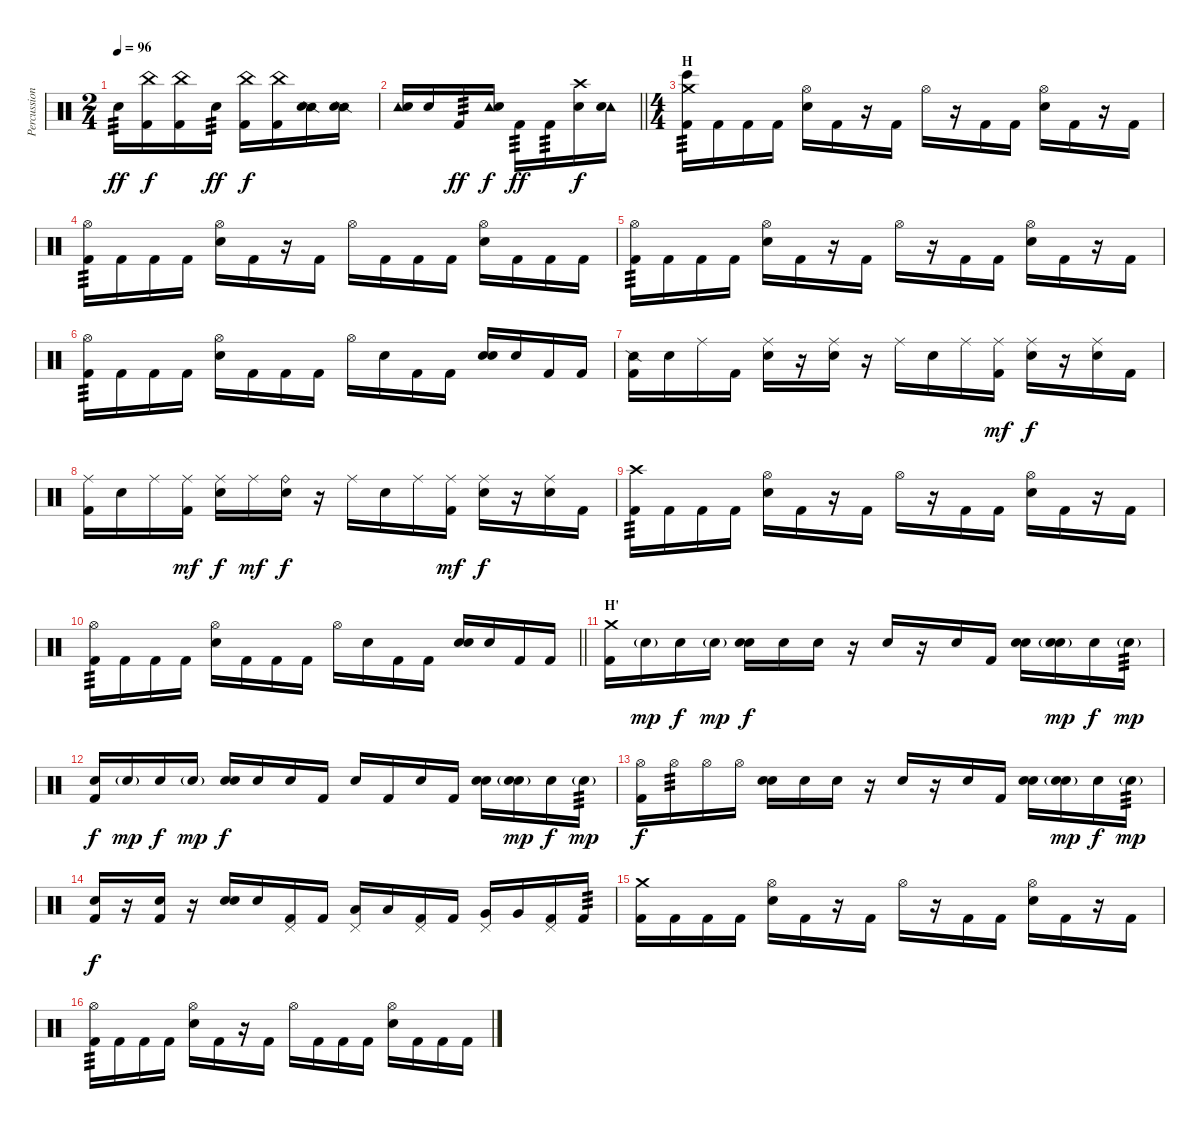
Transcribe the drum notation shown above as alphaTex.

\track ("Percussion" "Percussion") {instrument percussion}
\staff {score}
\articulation defaults
\ts (2 4)
\tempo 96
\clef neutral
\ks c "Snare (hit) 2".16{tp 3 dy ff}
("China (hit)" "Kick (hit) 2").16{dy f} ("China (hit)" "Kick (hit) 2").16 "Snare (hit) 2".16{tp 3 dy ff} ("China (hit)" "Kick (hit) 2").16{dy f} ("China (hit)" "Kick (hit) 2").16 ("Snare (side stick) 2" "Snare (hit) 2").16 ("Snare (side stick) 2" "Snare (hit) 2").16 |
\barLineRight lightlight
("Tambourine (hit)" "Snare (hit) 2").16 "Snare (hit) 2".16 "Kick (hit) 2".16{tp 3 dy ff} ("Tambourine (hit)" "Snare (hit) 2").16{dy f} "Kick (hit) 2".16{tp 3 dy ff} "Kick (hit) 2".16{tp 3} ("Crash high (hit)" "Snare (hit) 2").16{dy f} ("Tambourine (hit)" "Snare (hit) 2").16 |
\ts (4 4)
\section ("" "H")
("Crash medium (hit)" "Bongo High (hit)" "Kick (hit) 2").16{tp 3} "Kick (hit) 2".16 "Kick (hit) 2".16 "Kick (hit) 2".16 ("Hi-Hat (open)" "Snare (hit) 2").16 "Kick (hit) 2".16 r.16 "Kick (hit) 2".16 "Hi-Hat (open)".16 r.16 "Kick (hit) 2".16 "Kick (hit) 2".16 ("Hi-Hat (open)" "Snare (hit) 2").16 "Kick (hit) 2".16 r.16 "Kick (hit) 2".16 |
("Hi-Hat (open)" "Kick (hit) 2").16{tp 3} "Kick (hit) 2".16 "Kick (hit) 2".16 "Kick (hit) 2".16 ("Hi-Hat (open)" "Snare (hit) 2").16 "Kick (hit) 2".16 r.16 "Kick (hit) 2".16 "Hi-Hat (open)".16 "Kick (hit) 2".16 "Kick (hit) 2".16 "Kick (hit) 2".16 ("Hi-Hat (open)" "Snare (hit) 2").16 "Kick (hit) 2".16 "Kick (hit) 2".16 "Kick (hit) 2".16 |
("Hi-Hat (open)" "Kick (hit) 2").16{tp 3} "Kick (hit) 2".16 "Kick (hit) 2".16 "Kick (hit) 2".16 ("Hi-Hat (open)" "Snare (hit) 2").16 "Kick (hit) 2".16 r.16 "Kick (hit) 2".16 "Hi-Hat (open)".16 r.16 "Kick (hit) 2".16 "Kick (hit) 2".16 ("Hi-Hat (open)" "Snare (hit) 2").16 "Kick (hit) 2".16 r.16 "Kick (hit) 2".16 |
("Hi-Hat (open)" "Kick (hit) 2").16{tp 3} "Kick (hit) 2".16 "Kick (hit) 2".16 "Kick (hit) 2".16 ("Hi-Hat (open)" "Snare (hit) 2").16 "Kick (hit) 2".16 "Kick (hit) 2".16 "Kick (hit) 2".16 "Hi-Hat (open)".16 "Snare (hit) 2".16 "Kick (hit) 2".16 "Kick (hit) 2".16 ("Snare (hit)" "Snare (hit) 2").16 "Snare (hit) 2".16 "Kick (hit) 2".16 "Kick (hit) 2".16 |
("Snare (side stick) 2" "Kick (hit) 2").16 "Snare (hit) 2".16 "Ride (middle)".16 "Kick (hit) 2".16 ("Ride (middle)" "Snare (hit) 2").16 r.16 ("Ride (middle)" "Snare (hit) 2").16 r.16 "Ride (middle)".16 "Snare (hit) 2".16 "Ride (middle)".16 ("Ride (middle)" "Kick (hit) 2").16{dy mf} ("Ride (middle)" "Snare (hit) 2").16{dy f} r.16 ("Ride (middle)" "Snare (hit) 2").16 "Kick (hit) 2".16 |
("Ride (middle)" "Kick (hit) 2").16 "Snare (hit) 2".16 "Ride (middle)".16 ("Ride (middle)" "Kick (hit) 2").16{dy mf} ("Ride (middle)" "Snare (hit) 2").16{dy f} "Ride (middle)".16{dy mf} ("Ride (bell)" "Snare (hit) 2").16{dy f} r.16 "Ride (middle)".16 "Snare (hit) 2".16 "Ride (middle)".16 ("Ride (middle)" "Kick (hit) 2").16{dy mf} ("Ride (middle)" "Snare (hit) 2").16{dy f} r.16 ("Ride (middle)" "Snare (hit) 2").16 "Kick (hit) 2".16 |
("Crash high (hit)" "Kick (hit) 2").16{tp 3} "Kick (hit) 2".16 "Kick (hit) 2".16 "Kick (hit) 2".16 ("Hi-Hat (open)" "Snare (hit) 2").16 "Kick (hit) 2".16 r.16 "Kick (hit) 2".16 "Hi-Hat (open)".16 r.16 "Kick (hit) 2".16 "Kick (hit) 2".16 ("Hi-Hat (open)" "Snare (hit) 2").16 "Kick (hit) 2".16 r.16 "Kick (hit) 2".16 |
\barLineRight lightlight
("Hi-Hat (open)" "Kick (hit) 2").16{tp 3} "Kick (hit) 2".16 "Kick (hit) 2".16 "Kick (hit) 2".16 ("Hi-Hat (open)" "Snare (hit) 2").16 "Kick (hit) 2".16 "Kick (hit) 2".16 "Kick (hit) 2".16 "Hi-Hat (open)".16 "Snare (hit) 2".16 "Kick (hit) 2".16 "Kick (hit) 2".16 ("Snare (hit)" "Snare (hit) 2").16 "Snare (hit) 2".16 "Kick (hit) 2".16 "Kick (hit) 2".16 |
\section ("" "H'")
("Crash medium (hit)" "Kick (hit) 2").16 "Snare (hit)"{g}.16{dy mp} "Snare (hit)".16{dy f} "Snare (hit)"{g}.16{dy mp} ("Snare (hit)" "Snare (hit) 2").16{dy f} "Snare (hit) 2".16 "Snare (hit)".16 r.16 "Snare (hit)".16 r.16 "Snare (hit)".16 "Kick (hit) 2".16 ("Snare (hit)" "Snare (hit) 2").16 ("Snare (hit)"{g} "Snare (hit) 2").16{dy mp} "Snare (hit)".16{dy f} "Snare (hit)"{g}.16{tp 3 dy mp} |
("Snare (hit)" "Kick (hit) 2").16{dy f} "Snare (hit)"{g}.16{dy mp} "Snare (hit)".16{dy f} "Snare (hit)"{g}.16{dy mp} ("Snare (hit)" "Snare (hit) 2").16{dy f} "Snare (hit) 2".16 "Snare (hit)".16 "Kick (hit) 2".16 "Snare (hit)".16 "Kick (hit) 2".16 "Snare (hit)".16 "Kick (hit) 2".16 ("Snare (hit)" "Snare (hit) 2").16 ("Snare (hit)"{g} "Snare (hit) 2").16{dy mp} "Snare (hit)".16{dy f} "Snare (hit)"{g}.16{tp 3 dy mp} |
("Hi-Hat (open)" "Kick (hit) 2").16{dy f} "Hi-Hat (open)".16{tp 3} "Hi-Hat (open)".16 "Hi-Hat (open)".16 ("Snare (hit)" "Snare (hit) 2").16 "Snare (hit) 2".16 "Snare (hit)".16 r.16 "Snare (hit)".16 r.16 "Snare (hit)".16 "Kick (hit) 2".16 ("Snare (hit)" "Snare (hit) 2").16 ("Snare (hit)"{g} "Snare (hit) 2").16{dy mp} "Snare (hit)".16{dy f} "Snare (hit)"{g}.16{tp 3 dy mp} |
("Snare (hit)" "Kick (hit) 2").16{dy f} r.16 ("Snare (hit)" "Kick (hit) 2").16 r.16 ("Snare (hit)" "Snare (hit) 2").16 "Snare (hit) 2".16 ("Pedal Hi-Hat (hit)" "Kick (hit) 2").16 "Kick (hit) 2".16 ("Pedal Hi-Hat (hit)" "Low Tom (hit)").16 "Low Tom (hit)".16 ("Pedal Hi-Hat (hit)" "Kick (hit) 2").16 "Kick (hit) 2".16 ("Pedal Hi-Hat (hit)" "Very Low Tom (hit)").16 "Very Low Tom (hit)".16 ("Pedal Hi-Hat (hit)" "Kick (hit) 2").16 "Kick (hit) 2".16{tp 3} |
("Crash medium (hit)" "Kick (hit) 2").16 "Kick (hit) 2".16 "Kick (hit) 2".16 "Kick (hit) 2".16 ("Hi-Hat (open)" "Snare (hit) 2").16 "Kick (hit) 2".16 r.16 "Kick (hit) 2".16 "Hi-Hat (open)".16 r.16 "Kick (hit) 2".16 "Kick (hit) 2".16 ("Hi-Hat (open)" "Snare (hit) 2").16 "Kick (hit) 2".16 r.16 "Kick (hit) 2".16 |
("Hi-Hat (open)" "Kick (hit) 2").16{tp 3} "Kick (hit) 2".16 "Kick (hit) 2".16 "Kick (hit) 2".16 ("Hi-Hat (open)" "Snare (hit) 2").16 "Kick (hit) 2".16 r.16 "Kick (hit) 2".16 "Hi-Hat (open)".16 "Kick (hit) 2".16 "Kick (hit) 2".16 "Kick (hit) 2".16 ("Hi-Hat (open)" "Snare (hit) 2").16 "Kick (hit) 2".16 "Kick (hit) 2".16 "Kick (hit) 2".16
